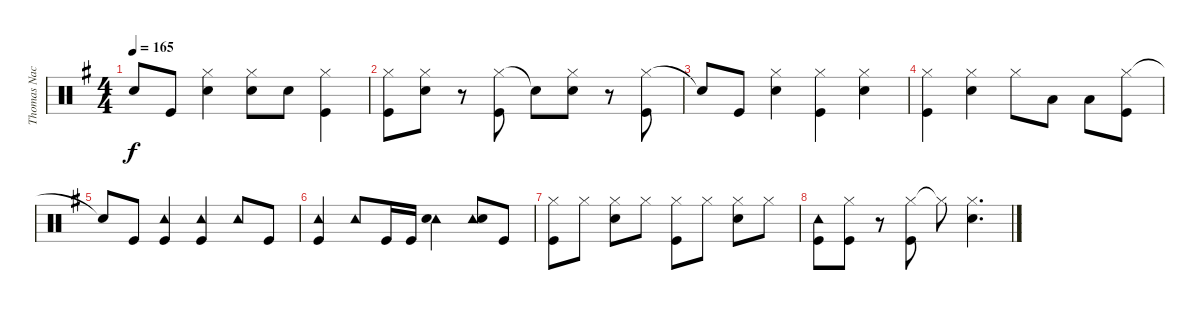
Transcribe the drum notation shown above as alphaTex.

\track ("Thomas Nack" "Thomas Nac") {instrument percussion}
\staff {score}
\articulation defaults
\ts (4 4)
\tempo 165
\clef neutral
\ks g "Snare (hit)"{t}.8{dy f} "Kick (hit)".8
("Hi-Hat (closed)" "Snare (hit) 2").4 ("Hi-Hat (closed)" "Snare (hit) 2").8 "Snare (hit) 2".8 ("Hi-Hat (closed)" "Kick (hit)").4 |
("Hi-Hat (closed)" "Kick (hit)").8 ("Hi-Hat (closed)" "Snare (hit) 2").8 r.8 ("Hi-Hat (closed)" "Kick (hit)").8 "Snare (hit)"{t}.8 ("Hi-Hat (closed)" "Snare (hit) 2").8 r.8 ("Hi-Hat (closed)" "Kick (hit)").8 |
"Snare (hit)"{t}.8 "Kick (hit)".8 ("Hi-Hat (closed)" "Snare (hit) 2").4 ("Hi-Hat (closed)" "Kick (hit)").4 ("Hi-Hat (closed)" "Snare (hit) 2").4 |
("Hi-Hat (closed)" "Kick (hit)").4 ("Hi-Hat (closed)" "Snare (hit) 2").4 "Hi-Hat (closed)".8 "Low Tom (hit)".8 "Low Tom (hit)".8 ("Hi-Hat (closed)" "Kick (hit)").8 |
"Snare (hit)"{t}.8 "Kick (hit)".8 ("Tambourine (hit)" "Kick (hit)").4 ("Tambourine (hit)" "Kick (hit)").4 "Tambourine (hit)".8 "Kick (hit)".8 |
("Tambourine (hit)" "Kick (hit)").4 "Tambourine (hit)".8 "Kick (hit)".16 "Kick (hit)".16 ("Tambourine (hit)" "Snare (hit) 2").4 ("Tambourine (hit)" "Snare (hit) 2").8 "Kick (hit)".8 |
("Hi-Hat (closed)" "Kick (hit)").8 "Hi-Hat (closed)".8 ("Hi-Hat (closed)" "Snare (hit) 2").8 "Hi-Hat (closed)".8 ("Hi-Hat (closed)" "Kick (hit)").8 "Hi-Hat (closed)".8 ("Hi-Hat (closed)" "Snare (hit) 2").8 "Hi-Hat (closed)".8 |
("Tambourine (hit)" "Kick (hit)").8 ("Hi-Hat (closed)" "Kick (hit)").8 r.8 ("Hi-Hat (closed)" "Kick (hit)").8 "Hi-Hat (closed)"{t}.8 ("Hi-Hat (closed)" "Snare (hit) 2").4{d}
